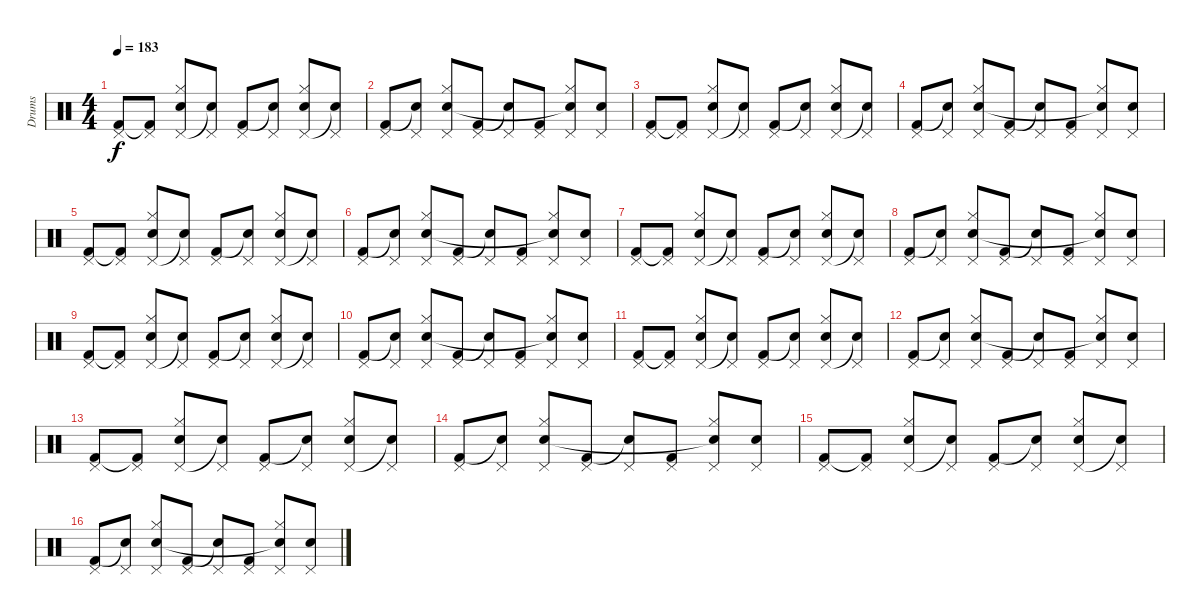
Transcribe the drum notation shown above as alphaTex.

\track ("Drums" "Drums") {instrument percussion}
\staff {score}
\articulation defaults
\ts (4 4)
\tempo 183
\clef neutral
\ks c
("Pedal Hi-Hat (hit)" "Kick (hit) 2").8{dy f} ("Pedal Hi-Hat (hit)" "Kick (hit) 2"{t}).8 ("Hi-Hat (closed)" "Pedal Hi-Hat (hit)" "Snare (hit) 2").8 ("Pedal Hi-Hat (hit)" "Snare (hit)"{t}).8 ("Pedal Hi-Hat (hit)" "Kick (hit) 2").8 ("Pedal Hi-Hat (hit)" "Snare (hit)"{t}).8 ("Hi-Hat (closed)" "Pedal Hi-Hat (hit)" "Snare (hit) 2").8 ("Pedal Hi-Hat (hit)" "Snare (hit)"{t}).8 |
("Pedal Hi-Hat (hit)" "Kick (hit) 2").8 ("Pedal Hi-Hat (hit)" "Snare (hit)"{t}).8 ("Hi-Hat (closed)" "Pedal Hi-Hat (hit)" "Snare (hit) 2").8 ("Pedal Hi-Hat (hit)" "Kick (hit) 2").8 ("Pedal Hi-Hat (hit)" "Snare (hit)"{t}).8 ("Pedal Hi-Hat (hit)" "Kick (hit) 2").8 ("Hi-Hat (closed)" "Pedal Hi-Hat (hit)" "Snare (hit)"{t}).8 ("Pedal Hi-Hat (hit)" "Snare (hit) 2").8 |
("Pedal Hi-Hat (hit)" "Kick (hit) 2").8 ("Pedal Hi-Hat (hit)" "Kick (hit) 2"{t}).8 ("Hi-Hat (closed)" "Pedal Hi-Hat (hit)" "Snare (hit) 2").8 ("Pedal Hi-Hat (hit)" "Snare (hit)"{t}).8 ("Pedal Hi-Hat (hit)" "Kick (hit) 2").8 ("Pedal Hi-Hat (hit)" "Snare (hit)"{t}).8 ("Hi-Hat (closed)" "Pedal Hi-Hat (hit)" "Snare (hit) 2").8 ("Pedal Hi-Hat (hit)" "Snare (hit)"{t}).8 |
("Pedal Hi-Hat (hit)" "Kick (hit) 2").8 ("Pedal Hi-Hat (hit)" "Snare (hit)"{t}).8 ("Hi-Hat (closed)" "Pedal Hi-Hat (hit)" "Snare (hit) 2").8 ("Pedal Hi-Hat (hit)" "Kick (hit) 2").8 ("Pedal Hi-Hat (hit)" "Snare (hit)"{t}).8 ("Pedal Hi-Hat (hit)" "Kick (hit) 2").8 ("Hi-Hat (closed)" "Pedal Hi-Hat (hit)" "Snare (hit)"{t}).8 ("Pedal Hi-Hat (hit)" "Snare (hit) 2").8 |
("Pedal Hi-Hat (hit)" "Kick (hit) 2").8 ("Pedal Hi-Hat (hit)" "Kick (hit) 2"{t}).8 ("Hi-Hat (closed)" "Pedal Hi-Hat (hit)" "Snare (hit) 2").8 ("Pedal Hi-Hat (hit)" "Snare (hit)"{t}).8 ("Pedal Hi-Hat (hit)" "Kick (hit) 2").8 ("Pedal Hi-Hat (hit)" "Snare (hit)"{t}).8 ("Hi-Hat (closed)" "Pedal Hi-Hat (hit)" "Snare (hit) 2").8 ("Pedal Hi-Hat (hit)" "Snare (hit)"{t}).8 |
("Pedal Hi-Hat (hit)" "Kick (hit) 2").8 ("Pedal Hi-Hat (hit)" "Snare (hit)"{t}).8 ("Hi-Hat (closed)" "Pedal Hi-Hat (hit)" "Snare (hit) 2").8 ("Pedal Hi-Hat (hit)" "Kick (hit) 2").8 ("Pedal Hi-Hat (hit)" "Snare (hit)"{t}).8 ("Pedal Hi-Hat (hit)" "Kick (hit) 2").8 ("Hi-Hat (closed)" "Pedal Hi-Hat (hit)" "Snare (hit)"{t}).8 ("Pedal Hi-Hat (hit)" "Snare (hit) 2").8 |
("Pedal Hi-Hat (hit)" "Kick (hit) 2").8 ("Pedal Hi-Hat (hit)" "Kick (hit) 2"{t}).8 ("Hi-Hat (closed)" "Pedal Hi-Hat (hit)" "Snare (hit) 2").8 ("Pedal Hi-Hat (hit)" "Snare (hit)"{t}).8 ("Pedal Hi-Hat (hit)" "Kick (hit) 2").8 ("Pedal Hi-Hat (hit)" "Snare (hit)"{t}).8 ("Hi-Hat (closed)" "Pedal Hi-Hat (hit)" "Snare (hit) 2").8 ("Pedal Hi-Hat (hit)" "Snare (hit)"{t}).8 |
("Pedal Hi-Hat (hit)" "Kick (hit) 2").8 ("Pedal Hi-Hat (hit)" "Snare (hit)"{t}).8 ("Hi-Hat (closed)" "Pedal Hi-Hat (hit)" "Snare (hit) 2").8 ("Pedal Hi-Hat (hit)" "Kick (hit) 2").8 ("Pedal Hi-Hat (hit)" "Snare (hit)"{t}).8 ("Pedal Hi-Hat (hit)" "Kick (hit) 2").8 ("Hi-Hat (closed)" "Pedal Hi-Hat (hit)" "Snare (hit)"{t}).8 ("Pedal Hi-Hat (hit)" "Snare (hit) 2").8 |
("Pedal Hi-Hat (hit)" "Kick (hit) 2").8 ("Pedal Hi-Hat (hit)" "Kick (hit) 2"{t}).8 ("Hi-Hat (closed)" "Pedal Hi-Hat (hit)" "Snare (hit) 2").8 ("Pedal Hi-Hat (hit)" "Snare (hit)"{t}).8 ("Pedal Hi-Hat (hit)" "Kick (hit) 2").8 ("Pedal Hi-Hat (hit)" "Snare (hit)"{t}).8 ("Hi-Hat (closed)" "Pedal Hi-Hat (hit)" "Snare (hit) 2").8 ("Pedal Hi-Hat (hit)" "Snare (hit)"{t}).8 |
("Pedal Hi-Hat (hit)" "Kick (hit) 2").8 ("Pedal Hi-Hat (hit)" "Snare (hit)"{t}).8 ("Hi-Hat (closed)" "Pedal Hi-Hat (hit)" "Snare (hit) 2").8 ("Pedal Hi-Hat (hit)" "Kick (hit) 2").8 ("Pedal Hi-Hat (hit)" "Snare (hit)"{t}).8 ("Pedal Hi-Hat (hit)" "Kick (hit) 2").8 ("Hi-Hat (closed)" "Pedal Hi-Hat (hit)" "Snare (hit)"{t}).8 ("Pedal Hi-Hat (hit)" "Snare (hit) 2").8 |
("Pedal Hi-Hat (hit)" "Kick (hit) 2").8 ("Pedal Hi-Hat (hit)" "Kick (hit) 2"{t}).8 ("Hi-Hat (closed)" "Pedal Hi-Hat (hit)" "Snare (hit) 2").8 ("Pedal Hi-Hat (hit)" "Snare (hit)"{t}).8 ("Pedal Hi-Hat (hit)" "Kick (hit) 2").8 ("Pedal Hi-Hat (hit)" "Snare (hit)"{t}).8 ("Hi-Hat (closed)" "Pedal Hi-Hat (hit)" "Snare (hit) 2").8 ("Pedal Hi-Hat (hit)" "Snare (hit)"{t}).8 |
("Pedal Hi-Hat (hit)" "Kick (hit) 2").8 ("Pedal Hi-Hat (hit)" "Snare (hit)"{t}).8 ("Hi-Hat (closed)" "Pedal Hi-Hat (hit)" "Snare (hit) 2").8 ("Pedal Hi-Hat (hit)" "Kick (hit) 2").8 ("Pedal Hi-Hat (hit)" "Snare (hit)"{t}).8 ("Pedal Hi-Hat (hit)" "Kick (hit) 2").8 ("Hi-Hat (closed)" "Pedal Hi-Hat (hit)" "Snare (hit)"{t}).8 ("Pedal Hi-Hat (hit)" "Snare (hit) 2").8 |
("Pedal Hi-Hat (hit)" "Kick (hit) 2").8 ("Pedal Hi-Hat (hit)" "Kick (hit) 2"{t}).8 ("Hi-Hat (closed)" "Pedal Hi-Hat (hit)" "Snare (hit) 2").8 ("Pedal Hi-Hat (hit)" "Snare (hit)"{t}).8 ("Pedal Hi-Hat (hit)" "Kick (hit) 2").8 ("Pedal Hi-Hat (hit)" "Snare (hit)"{t}).8 ("Hi-Hat (closed)" "Pedal Hi-Hat (hit)" "Snare (hit) 2").8 ("Pedal Hi-Hat (hit)" "Snare (hit)"{t}).8 |
("Pedal Hi-Hat (hit)" "Kick (hit) 2").8 ("Pedal Hi-Hat (hit)" "Snare (hit)"{t}).8 ("Hi-Hat (closed)" "Pedal Hi-Hat (hit)" "Snare (hit) 2").8 ("Pedal Hi-Hat (hit)" "Kick (hit) 2").8 ("Pedal Hi-Hat (hit)" "Snare (hit)"{t}).8 ("Pedal Hi-Hat (hit)" "Kick (hit) 2").8 ("Hi-Hat (closed)" "Pedal Hi-Hat (hit)" "Snare (hit)"{t}).8 ("Pedal Hi-Hat (hit)" "Snare (hit) 2").8 |
("Pedal Hi-Hat (hit)" "Kick (hit) 2").8 ("Pedal Hi-Hat (hit)" "Kick (hit) 2"{t}).8 ("Hi-Hat (closed)" "Pedal Hi-Hat (hit)" "Snare (hit) 2").8 ("Pedal Hi-Hat (hit)" "Snare (hit)"{t}).8 ("Pedal Hi-Hat (hit)" "Kick (hit) 2").8 ("Pedal Hi-Hat (hit)" "Snare (hit)"{t}).8 ("Hi-Hat (closed)" "Pedal Hi-Hat (hit)" "Snare (hit) 2").8 ("Pedal Hi-Hat (hit)" "Snare (hit)"{t}).8 |
("Pedal Hi-Hat (hit)" "Kick (hit) 2").8 ("Pedal Hi-Hat (hit)" "Snare (hit)"{t}).8 ("Hi-Hat (closed)" "Pedal Hi-Hat (hit)" "Snare (hit) 2").8 ("Pedal Hi-Hat (hit)" "Kick (hit) 2").8 ("Pedal Hi-Hat (hit)" "Snare (hit)"{t}).8 ("Pedal Hi-Hat (hit)" "Kick (hit) 2").8 ("Hi-Hat (closed)" "Pedal Hi-Hat (hit)" "Snare (hit)"{t}).8 ("Pedal Hi-Hat (hit)" "Snare (hit) 2").8
